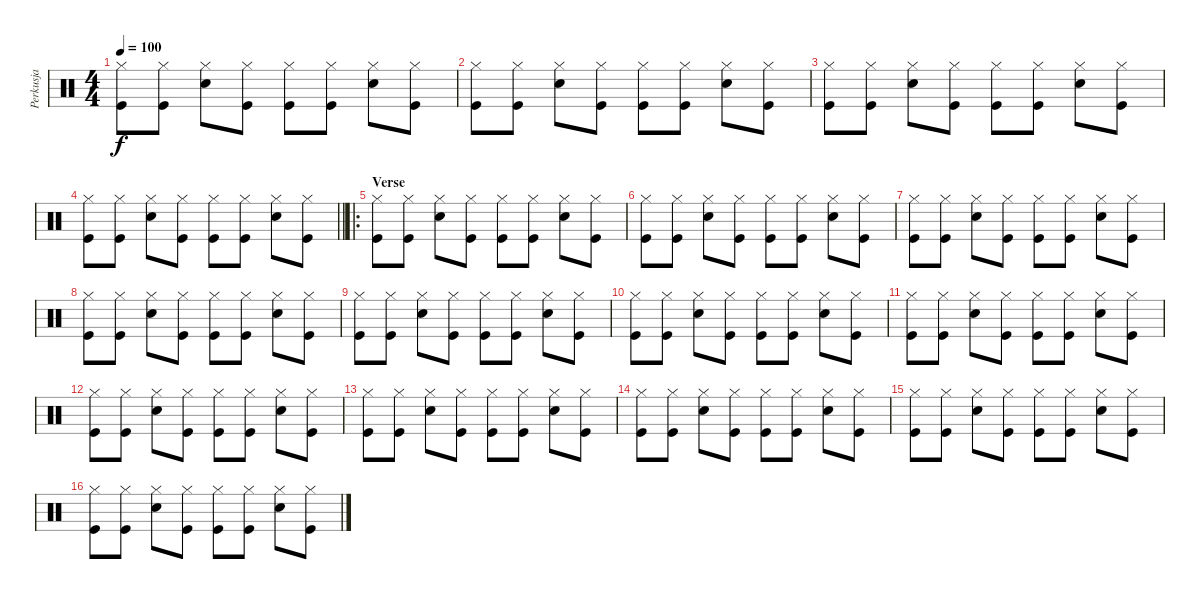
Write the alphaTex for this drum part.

\track ("Perkusja" "Perkusja") {instrument percussion}
\staff {score}
\articulation defaults
\ts (4 4)
\tempo 100
\clef neutral
\ks c
("Hi-Hat (closed)" "Kick (hit)").8{dy f} ("Hi-Hat (closed)" "Kick (hit)").8 ("Hi-Hat (closed)" "Electric Snare (hit)").8 ("Hi-Hat (closed)" "Kick (hit)").8 ("Hi-Hat (closed)" "Kick (hit)").8 ("Hi-Hat (closed)" "Kick (hit)").8 ("Hi-Hat (closed)" "Electric Snare (hit)").8 ("Hi-Hat (closed)" "Kick (hit)").8 |
("Hi-Hat (closed)" "Kick (hit)").8 ("Hi-Hat (closed)" "Kick (hit)").8 ("Hi-Hat (closed)" "Electric Snare (hit)").8 ("Hi-Hat (closed)" "Kick (hit)").8 ("Hi-Hat (closed)" "Kick (hit)").8 ("Hi-Hat (closed)" "Kick (hit)").8 ("Hi-Hat (closed)" "Electric Snare (hit)").8 ("Hi-Hat (closed)" "Kick (hit)").8 |
("Hi-Hat (closed)" "Kick (hit)").8 ("Hi-Hat (closed)" "Kick (hit)").8 ("Hi-Hat (closed)" "Electric Snare (hit)").8 ("Hi-Hat (closed)" "Kick (hit)").8 ("Hi-Hat (closed)" "Kick (hit)").8 ("Hi-Hat (closed)" "Kick (hit)").8 ("Hi-Hat (closed)" "Electric Snare (hit)").8 ("Hi-Hat (closed)" "Kick (hit)").8 |
\barLineRight lightlight
("Hi-Hat (closed)" "Kick (hit)").8 ("Hi-Hat (closed)" "Kick (hit)").8 ("Hi-Hat (closed)" "Electric Snare (hit)").8 ("Hi-Hat (closed)" "Kick (hit)").8 ("Hi-Hat (closed)" "Kick (hit)").8 ("Hi-Hat (closed)" "Kick (hit)").8 ("Hi-Hat (closed)" "Electric Snare (hit)").8 ("Hi-Hat (closed)" "Kick (hit)").8 |
\ro
\section ("" "Verse")
("Hi-Hat (closed)" "Kick (hit)").8 ("Hi-Hat (closed)" "Kick (hit)").8 ("Hi-Hat (closed)" "Electric Snare (hit)").8 ("Hi-Hat (closed)" "Kick (hit)").8 ("Hi-Hat (closed)" "Kick (hit)").8 ("Hi-Hat (closed)" "Kick (hit)").8 ("Hi-Hat (closed)" "Electric Snare (hit)").8 ("Hi-Hat (closed)" "Kick (hit)").8 |
("Hi-Hat (closed)" "Kick (hit)").8 ("Hi-Hat (closed)" "Kick (hit)").8 ("Hi-Hat (closed)" "Electric Snare (hit)").8 ("Hi-Hat (closed)" "Kick (hit)").8 ("Hi-Hat (closed)" "Kick (hit)").8 ("Hi-Hat (closed)" "Kick (hit)").8 ("Hi-Hat (closed)" "Electric Snare (hit)").8 ("Hi-Hat (closed)" "Kick (hit)").8 |
("Hi-Hat (closed)" "Kick (hit)").8 ("Hi-Hat (closed)" "Kick (hit)").8 ("Hi-Hat (closed)" "Electric Snare (hit)").8 ("Hi-Hat (closed)" "Kick (hit)").8 ("Hi-Hat (closed)" "Kick (hit)").8 ("Hi-Hat (closed)" "Kick (hit)").8 ("Hi-Hat (closed)" "Electric Snare (hit)").8 ("Hi-Hat (closed)" "Kick (hit)").8 |
("Hi-Hat (closed)" "Kick (hit)").8 ("Hi-Hat (closed)" "Kick (hit)").8 ("Hi-Hat (closed)" "Electric Snare (hit)").8 ("Hi-Hat (closed)" "Kick (hit)").8 ("Hi-Hat (closed)" "Kick (hit)").8 ("Hi-Hat (closed)" "Kick (hit)").8 ("Hi-Hat (closed)" "Electric Snare (hit)").8 ("Hi-Hat (closed)" "Kick (hit)").8 |
("Hi-Hat (closed)" "Kick (hit)").8 ("Hi-Hat (closed)" "Kick (hit)").8 ("Hi-Hat (closed)" "Electric Snare (hit)").8 ("Hi-Hat (closed)" "Kick (hit)").8 ("Hi-Hat (closed)" "Kick (hit)").8 ("Hi-Hat (closed)" "Kick (hit)").8 ("Hi-Hat (closed)" "Electric Snare (hit)").8 ("Hi-Hat (closed)" "Kick (hit)").8 |
("Hi-Hat (closed)" "Kick (hit)").8 ("Hi-Hat (closed)" "Kick (hit)").8 ("Hi-Hat (closed)" "Electric Snare (hit)").8 ("Hi-Hat (closed)" "Kick (hit)").8 ("Hi-Hat (closed)" "Kick (hit)").8 ("Hi-Hat (closed)" "Kick (hit)").8 ("Hi-Hat (closed)" "Electric Snare (hit)").8 ("Hi-Hat (closed)" "Kick (hit)").8 |
("Hi-Hat (closed)" "Kick (hit)").8 ("Hi-Hat (closed)" "Kick (hit)").8 ("Hi-Hat (closed)" "Electric Snare (hit)").8 ("Hi-Hat (closed)" "Kick (hit)").8 ("Hi-Hat (closed)" "Kick (hit)").8 ("Hi-Hat (closed)" "Kick (hit)").8 ("Hi-Hat (closed)" "Electric Snare (hit)").8 ("Hi-Hat (closed)" "Kick (hit)").8 |
("Hi-Hat (closed)" "Kick (hit)").8 ("Hi-Hat (closed)" "Kick (hit)").8 ("Hi-Hat (closed)" "Electric Snare (hit)").8 ("Hi-Hat (closed)" "Kick (hit)").8 ("Hi-Hat (closed)" "Kick (hit)").8 ("Hi-Hat (closed)" "Kick (hit)").8 ("Hi-Hat (closed)" "Electric Snare (hit)").8 ("Hi-Hat (closed)" "Kick (hit)").8 |
("Hi-Hat (closed)" "Kick (hit)").8 ("Hi-Hat (closed)" "Kick (hit)").8 ("Hi-Hat (closed)" "Electric Snare (hit)").8 ("Hi-Hat (closed)" "Kick (hit)").8 ("Hi-Hat (closed)" "Kick (hit)").8 ("Hi-Hat (closed)" "Kick (hit)").8 ("Hi-Hat (closed)" "Electric Snare (hit)").8 ("Hi-Hat (closed)" "Kick (hit)").8 |
("Hi-Hat (closed)" "Kick (hit)").8 ("Hi-Hat (closed)" "Kick (hit)").8 ("Hi-Hat (closed)" "Electric Snare (hit)").8 ("Hi-Hat (closed)" "Kick (hit)").8 ("Hi-Hat (closed)" "Kick (hit)").8 ("Hi-Hat (closed)" "Kick (hit)").8 ("Hi-Hat (closed)" "Electric Snare (hit)").8 ("Hi-Hat (closed)" "Kick (hit)").8 |
("Hi-Hat (closed)" "Kick (hit)").8 ("Hi-Hat (closed)" "Kick (hit)").8 ("Hi-Hat (closed)" "Electric Snare (hit)").8 ("Hi-Hat (closed)" "Kick (hit)").8 ("Hi-Hat (closed)" "Kick (hit)").8 ("Hi-Hat (closed)" "Kick (hit)").8 ("Hi-Hat (closed)" "Electric Snare (hit)").8 ("Hi-Hat (closed)" "Kick (hit)").8 |
("Hi-Hat (closed)" "Kick (hit)").8 ("Hi-Hat (closed)" "Kick (hit)").8 ("Hi-Hat (closed)" "Electric Snare (hit)").8 ("Hi-Hat (closed)" "Kick (hit)").8 ("Hi-Hat (closed)" "Kick (hit)").8 ("Hi-Hat (closed)" "Kick (hit)").8 ("Hi-Hat (closed)" "Electric Snare (hit)").8 ("Hi-Hat (closed)" "Kick (hit)").8
